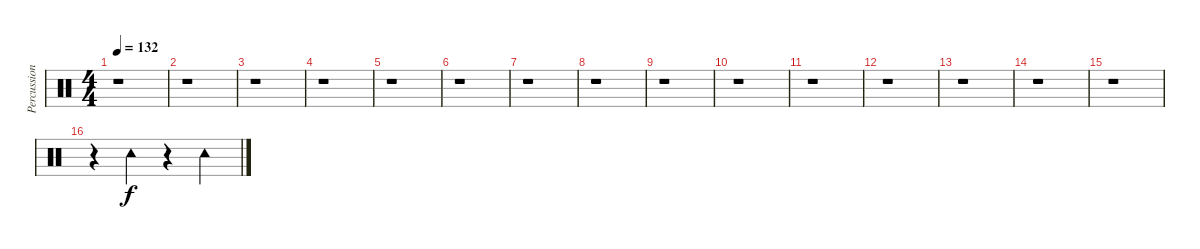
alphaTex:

\track ("Percussion" "Percussion") {instrument percussion}
\staff {score}
\articulation defaults
\ts (4 4)
\tempo 132
\clef neutral
\ks c
r.1{dy f} |
r.1 |
r.1 |
r.1 |
r.1 |
r.1 |
r.1 |
r.1 |
r.1 |
r.1 |
r.1 |
r.1 |
r.1 |
r.1 |
r.1 |
r.4 "Tambourine (hit)".4 r.4 "Tambourine (hit)".4
